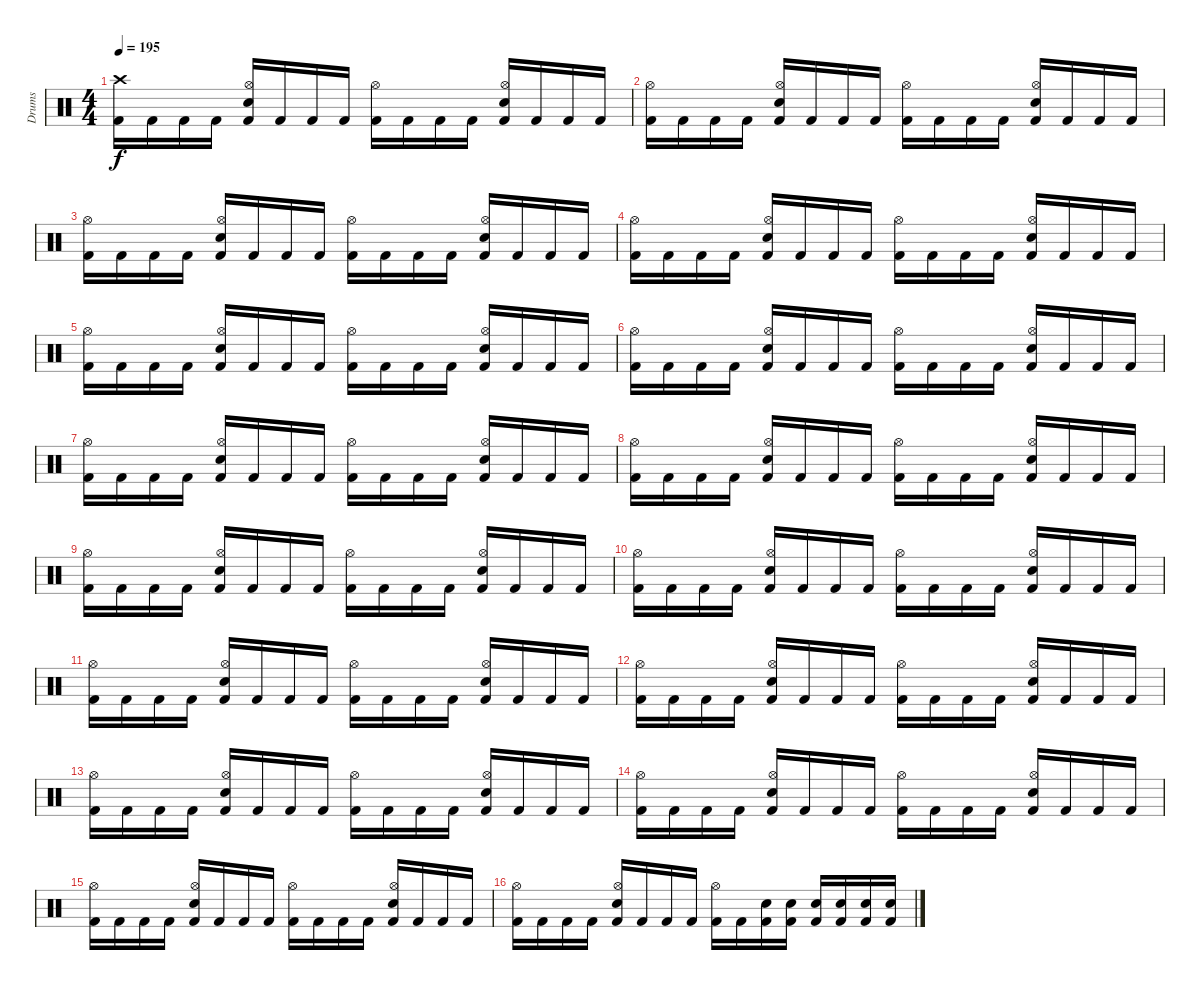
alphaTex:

\track ("Drums" "Drums") {instrument percussion}
\staff {score}
\articulation defaults
\ts (4 4)
\tempo 195
\clef neutral
\ks c
("Crash high (hit)" "Kick (hit) 2").16{dy f} "Kick (hit) 2".16 "Kick (hit) 2".16 "Kick (hit) 2".16 ("Hi-Hat (open)" "Snare (hit) 2" "Kick (hit) 2").16 "Kick (hit) 2".16 "Kick (hit) 2".16 "Kick (hit) 2".16 ("Hi-Hat (open)" "Kick (hit) 2").16 "Kick (hit) 2".16 "Kick (hit) 2".16 "Kick (hit) 2".16 ("Hi-Hat (open)" "Snare (hit) 2" "Kick (hit) 2").16 "Kick (hit) 2".16 "Kick (hit) 2".16 "Kick (hit) 2".16 |
("Hi-Hat (open)" "Kick (hit) 2").16 "Kick (hit) 2".16 "Kick (hit) 2".16 "Kick (hit) 2".16 ("Hi-Hat (open)" "Snare (hit) 2" "Kick (hit) 2").16 "Kick (hit) 2".16 "Kick (hit) 2".16 "Kick (hit) 2".16 ("Hi-Hat (open)" "Kick (hit) 2").16 "Kick (hit) 2".16 "Kick (hit) 2".16 "Kick (hit) 2".16 ("Hi-Hat (open)" "Snare (hit) 2" "Kick (hit) 2").16 "Kick (hit) 2".16 "Kick (hit) 2".16 "Kick (hit) 2".16 |
("Hi-Hat (open)" "Kick (hit) 2").16 "Kick (hit) 2".16 "Kick (hit) 2".16 "Kick (hit) 2".16 ("Hi-Hat (open)" "Snare (hit) 2" "Kick (hit) 2").16 "Kick (hit) 2".16 "Kick (hit) 2".16 "Kick (hit) 2".16 ("Hi-Hat (open)" "Kick (hit) 2").16 "Kick (hit) 2".16 "Kick (hit) 2".16 "Kick (hit) 2".16 ("Hi-Hat (open)" "Snare (hit) 2" "Kick (hit) 2").16 "Kick (hit) 2".16 "Kick (hit) 2".16 "Kick (hit) 2".16 |
("Hi-Hat (open)" "Kick (hit) 2").16 "Kick (hit) 2".16 "Kick (hit) 2".16 "Kick (hit) 2".16 ("Hi-Hat (open)" "Snare (hit) 2" "Kick (hit) 2").16 "Kick (hit) 2".16 "Kick (hit) 2".16 "Kick (hit) 2".16 ("Hi-Hat (open)" "Kick (hit) 2").16 "Kick (hit) 2".16 "Kick (hit) 2".16 "Kick (hit) 2".16 ("Hi-Hat (open)" "Snare (hit) 2" "Kick (hit) 2").16 "Kick (hit) 2".16 "Kick (hit) 2".16 "Kick (hit) 2".16 |
("Hi-Hat (open)" "Kick (hit) 2").16 "Kick (hit) 2".16 "Kick (hit) 2".16 "Kick (hit) 2".16 ("Hi-Hat (open)" "Snare (hit) 2" "Kick (hit) 2").16 "Kick (hit) 2".16 "Kick (hit) 2".16 "Kick (hit) 2".16 ("Hi-Hat (open)" "Kick (hit) 2").16 "Kick (hit) 2".16 "Kick (hit) 2".16 "Kick (hit) 2".16 ("Hi-Hat (open)" "Snare (hit) 2" "Kick (hit) 2").16 "Kick (hit) 2".16 "Kick (hit) 2".16 "Kick (hit) 2".16 |
("Hi-Hat (open)" "Kick (hit) 2").16 "Kick (hit) 2".16 "Kick (hit) 2".16 "Kick (hit) 2".16 ("Hi-Hat (open)" "Snare (hit) 2" "Kick (hit) 2").16 "Kick (hit) 2".16 "Kick (hit) 2".16 "Kick (hit) 2".16 ("Hi-Hat (open)" "Kick (hit) 2").16 "Kick (hit) 2".16 "Kick (hit) 2".16 "Kick (hit) 2".16 ("Hi-Hat (open)" "Snare (hit) 2" "Kick (hit) 2").16 "Kick (hit) 2".16 "Kick (hit) 2".16 "Kick (hit) 2".16 |
("Hi-Hat (open)" "Kick (hit) 2").16 "Kick (hit) 2".16 "Kick (hit) 2".16 "Kick (hit) 2".16 ("Hi-Hat (open)" "Snare (hit) 2" "Kick (hit) 2").16 "Kick (hit) 2".16 "Kick (hit) 2".16 "Kick (hit) 2".16 ("Hi-Hat (open)" "Kick (hit) 2").16 "Kick (hit) 2".16 "Kick (hit) 2".16 "Kick (hit) 2".16 ("Hi-Hat (open)" "Snare (hit) 2" "Kick (hit) 2").16 "Kick (hit) 2".16 "Kick (hit) 2".16 "Kick (hit) 2".16 |
("Hi-Hat (open)" "Kick (hit) 2").16 "Kick (hit) 2".16 "Kick (hit) 2".16 "Kick (hit) 2".16 ("Hi-Hat (open)" "Snare (hit) 2" "Kick (hit) 2").16 "Kick (hit) 2".16 "Kick (hit) 2".16 "Kick (hit) 2".16 ("Hi-Hat (open)" "Kick (hit) 2").16 "Kick (hit) 2".16 "Kick (hit) 2".16 "Kick (hit) 2".16 ("Hi-Hat (open)" "Snare (hit) 2" "Kick (hit) 2").16 "Kick (hit) 2".16 "Kick (hit) 2".16 "Kick (hit) 2".16 |
("Hi-Hat (open)" "Kick (hit) 2").16 "Kick (hit) 2".16 "Kick (hit) 2".16 "Kick (hit) 2".16 ("Hi-Hat (open)" "Snare (hit) 2" "Kick (hit) 2").16 "Kick (hit) 2".16 "Kick (hit) 2".16 "Kick (hit) 2".16 ("Hi-Hat (open)" "Kick (hit) 2").16 "Kick (hit) 2".16 "Kick (hit) 2".16 "Kick (hit) 2".16 ("Hi-Hat (open)" "Snare (hit) 2" "Kick (hit) 2").16 "Kick (hit) 2".16 "Kick (hit) 2".16 "Kick (hit) 2".16 |
("Hi-Hat (open)" "Kick (hit) 2").16 "Kick (hit) 2".16 "Kick (hit) 2".16 "Kick (hit) 2".16 ("Hi-Hat (open)" "Snare (hit) 2" "Kick (hit) 2").16 "Kick (hit) 2".16 "Kick (hit) 2".16 "Kick (hit) 2".16 ("Hi-Hat (open)" "Kick (hit) 2").16 "Kick (hit) 2".16 "Kick (hit) 2".16 "Kick (hit) 2".16 ("Hi-Hat (open)" "Snare (hit) 2" "Kick (hit) 2").16 "Kick (hit) 2".16 "Kick (hit) 2".16 "Kick (hit) 2".16 |
("Hi-Hat (open)" "Kick (hit) 2").16 "Kick (hit) 2".16 "Kick (hit) 2".16 "Kick (hit) 2".16 ("Hi-Hat (open)" "Snare (hit) 2" "Kick (hit) 2").16 "Kick (hit) 2".16 "Kick (hit) 2".16 "Kick (hit) 2".16 ("Hi-Hat (open)" "Kick (hit) 2").16 "Kick (hit) 2".16 "Kick (hit) 2".16 "Kick (hit) 2".16 ("Hi-Hat (open)" "Snare (hit) 2" "Kick (hit) 2").16 "Kick (hit) 2".16 "Kick (hit) 2".16 "Kick (hit) 2".16 |
("Hi-Hat (open)" "Kick (hit) 2").16 "Kick (hit) 2".16 "Kick (hit) 2".16 "Kick (hit) 2".16 ("Hi-Hat (open)" "Snare (hit) 2" "Kick (hit) 2").16 "Kick (hit) 2".16 "Kick (hit) 2".16 "Kick (hit) 2".16 ("Hi-Hat (open)" "Kick (hit) 2").16 "Kick (hit) 2".16 "Kick (hit) 2".16 "Kick (hit) 2".16 ("Hi-Hat (open)" "Snare (hit) 2" "Kick (hit) 2").16 "Kick (hit) 2".16 "Kick (hit) 2".16 "Kick (hit) 2".16 |
("Hi-Hat (open)" "Kick (hit) 2").16 "Kick (hit) 2".16 "Kick (hit) 2".16 "Kick (hit) 2".16 ("Hi-Hat (open)" "Snare (hit) 2" "Kick (hit) 2").16 "Kick (hit) 2".16 "Kick (hit) 2".16 "Kick (hit) 2".16 ("Hi-Hat (open)" "Kick (hit) 2").16 "Kick (hit) 2".16 "Kick (hit) 2".16 "Kick (hit) 2".16 ("Hi-Hat (open)" "Snare (hit) 2" "Kick (hit) 2").16 "Kick (hit) 2".16 "Kick (hit) 2".16 "Kick (hit) 2".16 |
("Hi-Hat (open)" "Kick (hit) 2").16 "Kick (hit) 2".16 "Kick (hit) 2".16 "Kick (hit) 2".16 ("Hi-Hat (open)" "Snare (hit) 2" "Kick (hit) 2").16 "Kick (hit) 2".16 "Kick (hit) 2".16 "Kick (hit) 2".16 ("Hi-Hat (open)" "Kick (hit) 2").16 "Kick (hit) 2".16 "Kick (hit) 2".16 "Kick (hit) 2".16 ("Hi-Hat (open)" "Snare (hit) 2" "Kick (hit) 2").16 "Kick (hit) 2".16 "Kick (hit) 2".16 "Kick (hit) 2".16 |
("Hi-Hat (open)" "Kick (hit) 2").16 "Kick (hit) 2".16 "Kick (hit) 2".16 "Kick (hit) 2".16 ("Hi-Hat (open)" "Snare (hit) 2" "Kick (hit) 2").16 "Kick (hit) 2".16 "Kick (hit) 2".16 "Kick (hit) 2".16 ("Hi-Hat (open)" "Kick (hit) 2").16 "Kick (hit) 2".16 "Kick (hit) 2".16 "Kick (hit) 2".16 ("Hi-Hat (open)" "Snare (hit) 2" "Kick (hit) 2").16 "Kick (hit) 2".16 "Kick (hit) 2".16 "Kick (hit) 2".16 |
("Hi-Hat (open)" "Kick (hit) 2").16 "Kick (hit) 2".16 "Kick (hit) 2".16 "Kick (hit) 2".16 ("Hi-Hat (open)" "Snare (hit) 2" "Kick (hit) 2").16 "Kick (hit) 2".16 "Kick (hit) 2".16 "Kick (hit) 2".16 ("Hi-Hat (open)" "Kick (hit) 2").16 "Kick (hit) 2".16 ("Snare (hit) 2" "Kick (hit) 2").16 ("Snare (hit) 2" "Kick (hit) 2").16 ("Snare (hit) 2" "Kick (hit) 2").16 ("Snare (hit) 2" "Kick (hit) 2").16 ("Snare (hit) 2" "Kick (hit) 2").16 ("Snare (hit) 2" "Kick (hit) 2").16
